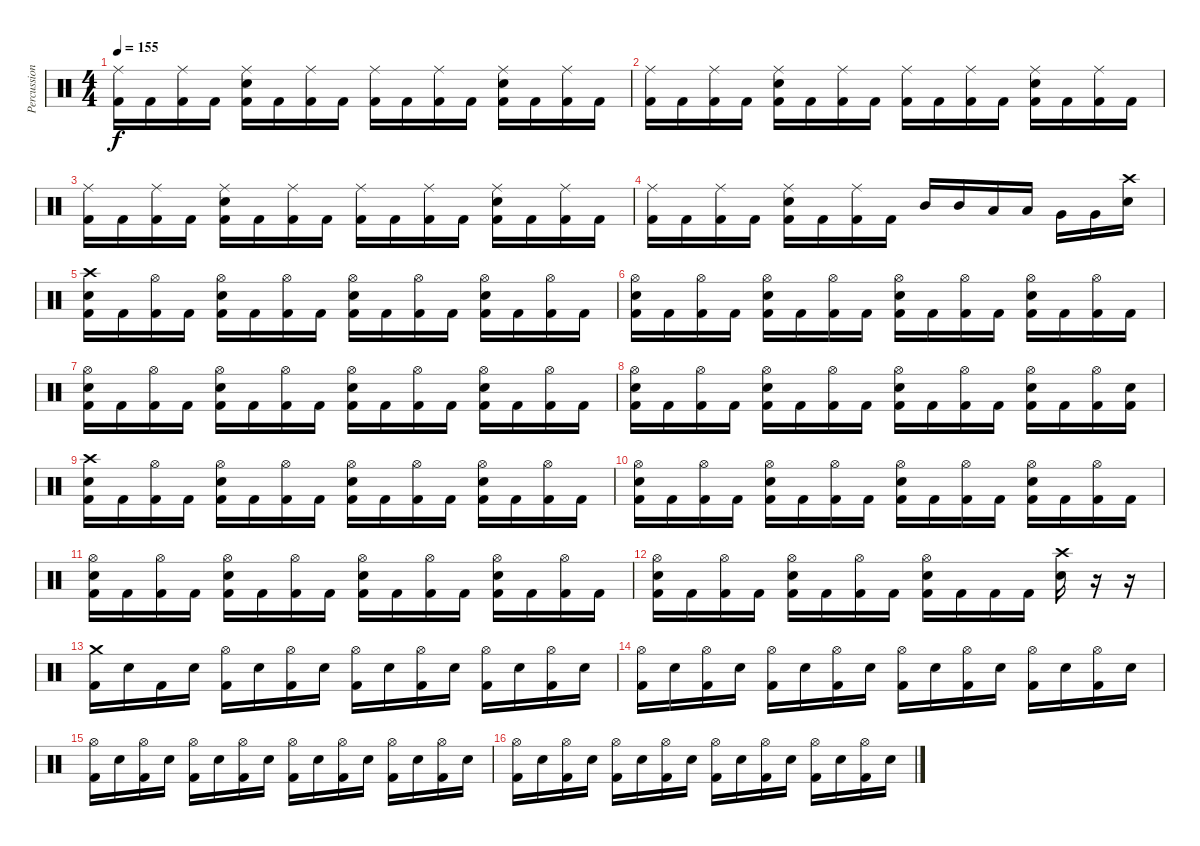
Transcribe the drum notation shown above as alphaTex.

\track ("Percussion" "Percussion") {instrument percussion}
\staff {score}
\articulation defaults
\ts (4 4)
\tempo 155
\clef neutral
\ks c
("Ride (middle)" "Kick (hit) 2").16{dy f} "Kick (hit) 2".16 ("Ride (middle)" "Kick (hit) 2").16 "Kick (hit) 2".16 ("Ride (middle)" "Snare (hit) 2" "Kick (hit) 2").16 "Kick (hit) 2".16 ("Ride (middle)" "Kick (hit) 2").16 "Kick (hit) 2".16 ("Ride (middle)" "Kick (hit) 2").16 "Kick (hit) 2".16 ("Ride (middle)" "Kick (hit) 2").16 "Kick (hit) 2".16 ("Ride (middle)" "Snare (hit) 2" "Kick (hit) 2").16 "Kick (hit) 2".16 ("Ride (middle)" "Kick (hit) 2").16 "Kick (hit) 2".16 |
("Ride (middle)" "Kick (hit) 2").16 "Kick (hit) 2".16 ("Ride (middle)" "Kick (hit) 2").16 "Kick (hit) 2".16 ("Ride (middle)" "Snare (hit) 2" "Kick (hit) 2").16 "Kick (hit) 2".16 ("Ride (middle)" "Kick (hit) 2").16 "Kick (hit) 2".16 ("Ride (middle)" "Kick (hit) 2").16 "Kick (hit) 2".16 ("Ride (middle)" "Kick (hit) 2").16 "Kick (hit) 2".16 ("Ride (middle)" "Snare (hit) 2" "Kick (hit) 2").16 "Kick (hit) 2".16 ("Ride (middle)" "Kick (hit) 2").16 "Kick (hit) 2".16 |
("Ride (middle)" "Kick (hit) 2").16 "Kick (hit) 2".16 ("Ride (middle)" "Kick (hit) 2").16 "Kick (hit) 2".16 ("Ride (middle)" "Snare (hit) 2" "Kick (hit) 2").16 "Kick (hit) 2".16 ("Ride (middle)" "Kick (hit) 2").16 "Kick (hit) 2".16 ("Ride (middle)" "Kick (hit) 2").16 "Kick (hit) 2".16 ("Ride (middle)" "Kick (hit) 2").16 "Kick (hit) 2".16 ("Ride (middle)" "Snare (hit) 2" "Kick (hit) 2").16 "Kick (hit) 2".16 ("Ride (middle)" "Kick (hit) 2").16 "Kick (hit) 2".16 |
("Ride (middle)" "Kick (hit) 2").16 "Kick (hit) 2".16 ("Ride (middle)" "Kick (hit) 2").16 "Kick (hit) 2".16 ("Ride (middle)" "Snare (hit) 2" "Kick (hit) 2").16 "Kick (hit) 2".16 ("Ride (middle)" "Kick (hit) 2").16 "Kick (hit) 2".16 "Mid Tom (hit)".16 "Mid Tom (hit)".16 "Low Tom (hit)".16 "Low Tom (hit)".16 "Very Low Tom (hit)".16 "Very Low Tom (hit)".16 ("Crash high (hit)" "Snare (hit) 2").16 |
("Crash high (hit)" "Kick (hit) 2" "Snare (hit) 2").16 "Kick (hit) 2".16 ("Hi-Hat (open)" "Kick (hit) 2").16 "Kick (hit) 2".16 ("Hi-Hat (open)" "Kick (hit) 2" "Snare (hit) 2").16 "Kick (hit) 2".16 ("Hi-Hat (open)" "Kick (hit) 2").16 "Kick (hit) 2".16 ("Hi-Hat (open)" "Kick (hit) 2" "Snare (hit) 2").16 "Kick (hit) 2".16 ("Hi-Hat (open)" "Kick (hit) 2").16 "Kick (hit) 2".16 ("Hi-Hat (open)" "Kick (hit) 2" "Snare (hit) 2").16 "Kick (hit) 2".16 ("Hi-Hat (open)" "Kick (hit) 2").16 "Kick (hit) 2".16 |
("Hi-Hat (open)" "Kick (hit) 2" "Snare (hit) 2").16 "Kick (hit) 2".16 ("Hi-Hat (open)" "Kick (hit) 2").16 "Kick (hit) 2".16 ("Hi-Hat (open)" "Kick (hit) 2" "Snare (hit) 2").16 "Kick (hit) 2".16 ("Hi-Hat (open)" "Kick (hit) 2").16 "Kick (hit) 2".16 ("Hi-Hat (open)" "Kick (hit) 2" "Snare (hit) 2").16 "Kick (hit) 2".16 ("Hi-Hat (open)" "Kick (hit) 2").16 "Kick (hit) 2".16 ("Hi-Hat (open)" "Kick (hit) 2" "Snare (hit) 2").16 "Kick (hit) 2".16 ("Hi-Hat (open)" "Kick (hit) 2").16 "Kick (hit) 2".16 |
("Hi-Hat (open)" "Kick (hit) 2" "Snare (hit) 2").16 "Kick (hit) 2".16 ("Hi-Hat (open)" "Kick (hit) 2").16 "Kick (hit) 2".16 ("Hi-Hat (open)" "Kick (hit) 2" "Snare (hit) 2").16 "Kick (hit) 2".16 ("Hi-Hat (open)" "Kick (hit) 2").16 "Kick (hit) 2".16 ("Hi-Hat (open)" "Kick (hit) 2" "Snare (hit) 2").16 "Kick (hit) 2".16 ("Hi-Hat (open)" "Kick (hit) 2").16 "Kick (hit) 2".16 ("Hi-Hat (open)" "Kick (hit) 2" "Snare (hit) 2").16 "Kick (hit) 2".16 ("Hi-Hat (open)" "Kick (hit) 2").16 "Kick (hit) 2".16 |
("Hi-Hat (open)" "Kick (hit) 2" "Snare (hit) 2").16 "Kick (hit) 2".16 ("Hi-Hat (open)" "Kick (hit) 2").16 "Kick (hit) 2".16 ("Hi-Hat (open)" "Kick (hit) 2" "Snare (hit) 2").16 "Kick (hit) 2".16 ("Hi-Hat (open)" "Kick (hit) 2").16 "Kick (hit) 2".16 ("Hi-Hat (open)" "Kick (hit) 2" "Snare (hit) 2").16 "Kick (hit) 2".16 ("Hi-Hat (open)" "Kick (hit) 2").16 "Kick (hit) 2".16 ("Hi-Hat (open)" "Kick (hit) 2" "Snare (hit) 2").16 "Kick (hit) 2".16 ("Hi-Hat (open)" "Kick (hit) 2").16 ("Kick (hit) 2" "Snare (hit) 2").16 |
("Crash high (hit)" "Kick (hit) 2" "Snare (hit) 2").16 "Kick (hit) 2".16 ("Hi-Hat (open)" "Kick (hit) 2").16 "Kick (hit) 2".16 ("Hi-Hat (open)" "Kick (hit) 2" "Snare (hit) 2").16 "Kick (hit) 2".16 ("Hi-Hat (open)" "Kick (hit) 2").16 "Kick (hit) 2".16 ("Hi-Hat (open)" "Kick (hit) 2" "Snare (hit) 2").16 "Kick (hit) 2".16 ("Hi-Hat (open)" "Kick (hit) 2").16 "Kick (hit) 2".16 ("Hi-Hat (open)" "Kick (hit) 2" "Snare (hit) 2").16 "Kick (hit) 2".16 ("Hi-Hat (open)" "Kick (hit) 2").16 "Kick (hit) 2".16 |
("Hi-Hat (open)" "Kick (hit) 2" "Snare (hit) 2").16 "Kick (hit) 2".16 ("Hi-Hat (open)" "Kick (hit) 2").16 "Kick (hit) 2".16 ("Hi-Hat (open)" "Kick (hit) 2" "Snare (hit) 2").16 "Kick (hit) 2".16 ("Hi-Hat (open)" "Kick (hit) 2").16 "Kick (hit) 2".16 ("Hi-Hat (open)" "Kick (hit) 2" "Snare (hit) 2").16 "Kick (hit) 2".16 ("Hi-Hat (open)" "Kick (hit) 2").16 "Kick (hit) 2".16 ("Hi-Hat (open)" "Kick (hit) 2" "Snare (hit) 2").16 "Kick (hit) 2".16 ("Hi-Hat (open)" "Kick (hit) 2").16 "Kick (hit) 2".16 |
("Hi-Hat (open)" "Kick (hit) 2" "Snare (hit) 2").16 "Kick (hit) 2".16 ("Hi-Hat (open)" "Kick (hit) 2").16 "Kick (hit) 2".16 ("Hi-Hat (open)" "Kick (hit) 2" "Snare (hit) 2").16 "Kick (hit) 2".16 ("Hi-Hat (open)" "Kick (hit) 2").16 "Kick (hit) 2".16 ("Hi-Hat (open)" "Kick (hit) 2" "Snare (hit) 2").16 "Kick (hit) 2".16 ("Hi-Hat (open)" "Kick (hit) 2").16 "Kick (hit) 2".16 ("Hi-Hat (open)" "Kick (hit) 2" "Snare (hit) 2").16 "Kick (hit) 2".16 ("Hi-Hat (open)" "Kick (hit) 2").16 "Kick (hit) 2".16 |
("Hi-Hat (open)" "Kick (hit) 2" "Snare (hit) 2").16 "Kick (hit) 2".16 ("Hi-Hat (open)" "Kick (hit) 2").16 "Kick (hit) 2".16 ("Hi-Hat (open)" "Kick (hit) 2" "Snare (hit) 2").16 "Kick (hit) 2".16 ("Hi-Hat (open)" "Kick (hit) 2").16 "Kick (hit) 2".16 ("Hi-Hat (open)" "Kick (hit) 2" "Snare (hit) 2").16 "Kick (hit) 2".16 "Kick (hit) 2".16 "Kick (hit) 2".16 ("Snare (hit) 2" "Crash high (hit)").16 r.16 r.16 |
("Kick (hit) 2" "Crash medium (hit)").16 "Snare (hit) 2".16 "Kick (hit) 2".16 "Snare (hit) 2".16 ("Kick (hit) 2" "Hi-Hat (open)").16 "Snare (hit) 2".16 ("Kick (hit) 2" "Hi-Hat (open)").16 "Snare (hit) 2".16 ("Kick (hit) 2" "Hi-Hat (open)").16 "Snare (hit) 2".16 ("Kick (hit) 2" "Hi-Hat (open)").16 "Snare (hit) 2".16 ("Kick (hit) 2" "Hi-Hat (open)").16 "Snare (hit) 2".16 ("Kick (hit) 2" "Hi-Hat (open)").16 "Snare (hit) 2".16 |
("Kick (hit) 2" "Hi-Hat (open)").16 "Snare (hit) 2".16 ("Kick (hit) 2" "Hi-Hat (open)").16 "Snare (hit) 2".16 ("Kick (hit) 2" "Hi-Hat (open)").16 "Snare (hit) 2".16 ("Kick (hit) 2" "Hi-Hat (open)").16 "Snare (hit) 2".16 ("Kick (hit) 2" "Hi-Hat (open)").16 "Snare (hit) 2".16 ("Kick (hit) 2" "Hi-Hat (open)").16 "Snare (hit) 2".16 ("Kick (hit) 2" "Hi-Hat (open)").16 "Snare (hit) 2".16 ("Kick (hit) 2" "Hi-Hat (open)").16 "Snare (hit) 2".16 |
("Kick (hit) 2" "Hi-Hat (open)").16 "Snare (hit) 2".16 ("Kick (hit) 2" "Hi-Hat (open)").16 "Snare (hit) 2".16 ("Kick (hit) 2" "Hi-Hat (open)").16 "Snare (hit) 2".16 ("Kick (hit) 2" "Hi-Hat (open)").16 "Snare (hit) 2".16 ("Kick (hit) 2" "Hi-Hat (open)").16 "Snare (hit) 2".16 ("Kick (hit) 2" "Hi-Hat (open)").16 "Snare (hit) 2".16 ("Kick (hit) 2" "Hi-Hat (open)").16 "Snare (hit) 2".16 ("Kick (hit) 2" "Hi-Hat (open)").16 "Snare (hit) 2".16 |
("Kick (hit) 2" "Hi-Hat (open)").16 "Snare (hit) 2".16 ("Kick (hit) 2" "Hi-Hat (open)").16 "Snare (hit) 2".16 ("Kick (hit) 2" "Hi-Hat (open)").16 "Snare (hit) 2".16 ("Kick (hit) 2" "Hi-Hat (open)").16 "Snare (hit) 2".16 ("Kick (hit) 2" "Hi-Hat (open)").16 "Snare (hit) 2".16 ("Kick (hit) 2" "Hi-Hat (open)").16 "Snare (hit) 2".16 ("Kick (hit) 2" "Hi-Hat (open)").16 "Snare (hit) 2".16 ("Kick (hit) 2" "Hi-Hat (open)").16 "Snare (hit) 2".16
